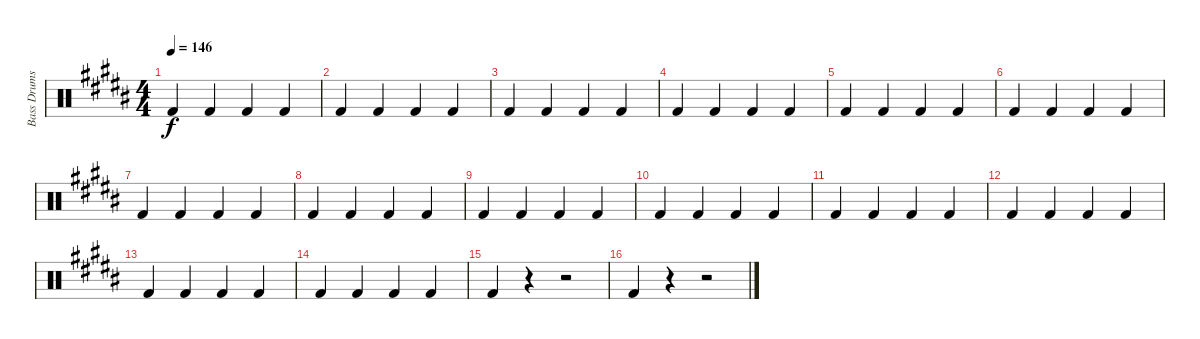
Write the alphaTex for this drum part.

\track ("Bass Drums" "Bass Drums") {instrument percussion}
\staff {score}
\articulation defaults
\ts (4 4)
\tempo 146
\clef neutral
\ks b "Kick (hit) 2".4{dy f} "Kick (hit) 2".4 "Kick (hit) 2".4 "Kick (hit) 2".4
|
"Kick (hit) 2".4 "Kick (hit) 2".4 "Kick (hit) 2".4 "Kick (hit) 2".4 |
"Kick (hit) 2".4 "Kick (hit) 2".4 "Kick (hit) 2".4 "Kick (hit) 2".4 |
"Kick (hit) 2".4 "Kick (hit) 2".4 "Kick (hit) 2".4 "Kick (hit) 2".4 |
"Kick (hit) 2".4 "Kick (hit) 2".4 "Kick (hit) 2".4 "Kick (hit) 2".4 |
"Kick (hit) 2".4 "Kick (hit) 2".4 "Kick (hit) 2".4 "Kick (hit) 2".4 |
"Kick (hit) 2".4 "Kick (hit) 2".4 "Kick (hit) 2".4 "Kick (hit) 2".4 |
"Kick (hit) 2".4 "Kick (hit) 2".4 "Kick (hit) 2".4 "Kick (hit) 2".4 |
"Kick (hit) 2".4 "Kick (hit) 2".4 "Kick (hit) 2".4 "Kick (hit) 2".4 |
"Kick (hit) 2".4 "Kick (hit) 2".4 "Kick (hit) 2".4 "Kick (hit) 2".4 |
"Kick (hit) 2".4 "Kick (hit) 2".4 "Kick (hit) 2".4 "Kick (hit) 2".4 |
"Kick (hit) 2".4 "Kick (hit) 2".4 "Kick (hit) 2".4 "Kick (hit) 2".4 |
"Kick (hit) 2".4 "Kick (hit) 2".4 "Kick (hit) 2".4 "Kick (hit) 2".4 |
"Kick (hit) 2".4 "Kick (hit) 2".4 "Kick (hit) 2".4 "Kick (hit) 2".4 |
"Kick (hit) 2".4 r.4 r.2 |
"Kick (hit) 2".4 r.4 r.2
